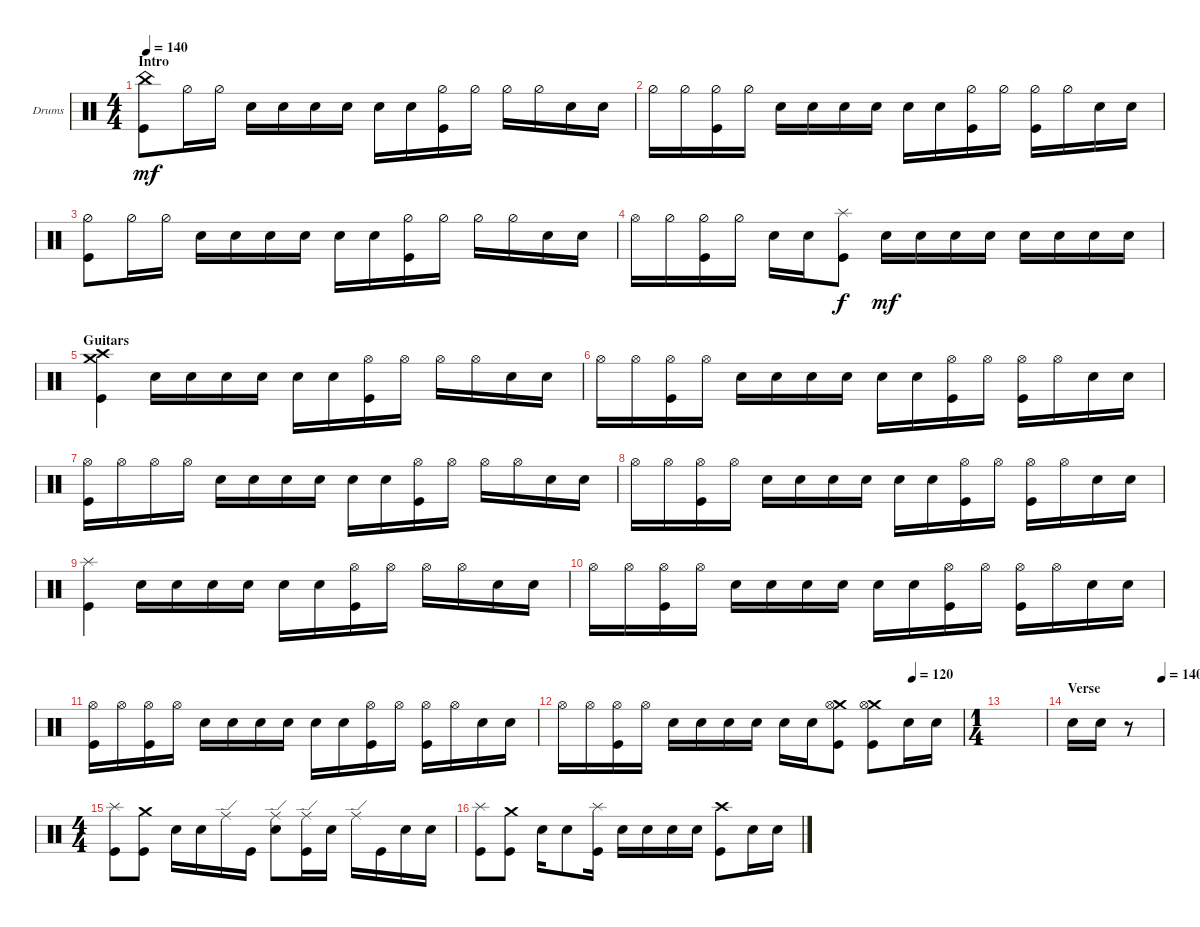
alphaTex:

\bracketExtendMode groupsimilarinstruments
\firstSystemTrackNameOrientation horizontal
\otherSystemsTrackNameOrientation horizontal
\track ("Drumkit" "Drums") {instrument percussion}
\staff {score}
\articulation defaults
\ts (4 4)
\section ("" "Intro")
\tempo 140
\clef neutral
\ks c
("Kick (hit)" "China (hit)").8{dy mf} "Hi-Hat (half)".16 "Hi-Hat (half)".16 "Snare (hit) 2".16 "Snare (hit) 2".16 "Snare (hit) 2".16 "Snare (hit) 2".16 "Snare (hit) 2".16 "Snare (hit) 2".16 ("Kick (hit)" "Hi-Hat (half)").16 "Hi-Hat (half)".16 "Hi-Hat (half)".16 "Hi-Hat (half)".16 "Snare (hit) 2".16 "Snare (hit) 2".16 |
"Hi-Hat (half)".16 "Hi-Hat (half)".16 ("Kick (hit)" "Hi-Hat (half)").16 "Hi-Hat (half)".16 "Snare (hit) 2".16 "Snare (hit) 2".16 "Snare (hit) 2".16 "Snare (hit) 2".16 "Snare (hit) 2".16 "Snare (hit) 2".16 ("Kick (hit)" "Hi-Hat (half)").16 "Hi-Hat (half)".16 ("Hi-Hat (half)" "Kick (hit)").16 "Hi-Hat (half)".16 "Snare (hit) 2".16 "Snare (hit) 2".16 |
("Kick (hit)" "Hi-Hat (half)").8 "Hi-Hat (half)".16 "Hi-Hat (half)".16 "Snare (hit) 2".16 "Snare (hit) 2".16 "Snare (hit) 2".16 "Snare (hit) 2".16 "Snare (hit) 2".16 "Snare (hit) 2".16 ("Kick (hit)" "Hi-Hat (half)").16 "Hi-Hat (half)".16 "Hi-Hat (half)".16 "Hi-Hat (half)".16 "Snare (hit) 2".16 "Snare (hit) 2".16 |
"Hi-Hat (open)".16 "Hi-Hat (half)".16 ("Hi-Hat (half)" "Kick (hit)").16 "Hi-Hat (half)".16 "Snare (hit) 2".16 "Snare (hit) 2".16 ("Kick (hit)" "Splash (hit)").8{dy f} "Snare (hit) 2".16{dy mf} "Snare (hit) 2".16 "Snare (hit) 2".16 "Snare (hit) 2".16 "Snare (hit) 2".16 "Snare (hit) 2".16 "Snare (hit) 2".16 "Snare (hit) 2".16 |
\section ("" "Guitars")
("Kick (hit)" "Crash high (hit)" "Crash medium (hit)").4 "Snare (hit) 2".16 "Snare (hit) 2".16 "Snare (hit) 2".16 "Snare (hit) 2".16 "Snare (hit) 2".16 "Snare (hit) 2".16 ("Kick (hit)" "Hi-Hat (open)").16 "Hi-Hat (open)".16 "Hi-Hat (open)".16 "Hi-Hat (open)".16 "Snare (hit) 2".16 "Snare (hit) 2".16 |
"Hi-Hat (open)".16 "Hi-Hat (open)".16 ("Kick (hit)" "Hi-Hat (open)").16 "Hi-Hat (open)".16 "Snare (hit) 2".16 "Snare (hit) 2".16 "Snare (hit) 2".16 "Snare (hit) 2".16 "Snare (hit) 2".16 "Snare (hit) 2".16 ("Kick (hit)" "Hi-Hat (open)").16 "Hi-Hat (open)".16 ("Hi-Hat (open)" "Kick (hit)").16 "Hi-Hat (open)".16 "Snare (hit) 2".16 "Snare (hit) 2".16 |
("Kick (hit)" "Hi-Hat (open)").16 "Hi-Hat (open)".16 "Hi-Hat (open)".16 "Hi-Hat (open)".16 "Snare (hit) 2".16 "Snare (hit) 2".16 "Snare (hit) 2".16 "Snare (hit) 2".16 "Snare (hit) 2".16 "Snare (hit) 2".16 ("Kick (hit)" "Hi-Hat (open)").16 "Hi-Hat (open)".16 "Hi-Hat (open)".16 "Hi-Hat (open)".16 "Snare (hit) 2".16 "Snare (hit) 2".16 |
"Hi-Hat (open)".16 "Hi-Hat (open)".16 ("Hi-Hat (open)" "Kick (hit)").16 "Hi-Hat (open)".16 "Snare (hit) 2".16 "Snare (hit) 2".16 "Snare (hit) 2".16 "Snare (hit) 2".16 "Snare (hit) 2".16 "Snare (hit) 2".16 ("Kick (hit)" "Hi-Hat (open)").16 "Hi-Hat (open)".16 ("Hi-Hat (open)" "Kick (hit)").16 "Hi-Hat (open)".16 "Snare (hit) 2".16 "Snare (hit) 2".16 |
("Kick (hit)" "Splash (hit)").4 "Snare (hit) 2".16 "Snare (hit) 2".16 "Snare (hit) 2".16 "Snare (hit) 2".16 "Snare (hit) 2".16 "Snare (hit) 2".16 ("Kick (hit)" "Hi-Hat (open)").16 "Hi-Hat (open)".16 "Hi-Hat (open)".16 "Hi-Hat (open)".16 "Snare (hit) 2".16 "Snare (hit) 2".16 |
"Hi-Hat (open)".16 "Hi-Hat (open)".16 ("Hi-Hat (open)" "Kick (hit)").16 "Hi-Hat (open)".16 "Snare (hit) 2".16 "Snare (hit) 2".16 "Snare (hit) 2".16 "Snare (hit) 2".16 "Snare (hit) 2".16 "Snare (hit) 2".16 ("Kick (hit)" "Hi-Hat (open)").16 "Hi-Hat (open)".16 ("Hi-Hat (open)" "Kick (hit)").16 "Hi-Hat (open)".16 "Snare (hit) 2".16 "Snare (hit) 2".16 |
("Kick (hit)" "Hi-Hat (open)").16 "Hi-Hat (open)".16 ("Hi-Hat (open)" "Kick (hit)").16 "Hi-Hat (open)".16 "Snare (hit) 2".16 "Snare (hit) 2".16 "Snare (hit) 2".16 "Snare (hit) 2".16 "Snare (hit) 2".16 "Snare (hit) 2".16 ("Kick (hit)" "Hi-Hat (open)").16 "Hi-Hat (open)".16 ("Hi-Hat (open)" "Kick (hit)").16 "Hi-Hat (open)".16 "Snare (hit) 2".16 "Snare (hit) 2".16 |
\tempo (120 0.875)
"Hi-Hat (open)".16 "Hi-Hat (open)".16 ("Hi-Hat (open)" "Kick (hit)").16 "Hi-Hat (open)".16 "Snare (hit) 2".16 "Snare (hit) 2".16 "Snare (hit) 2".16 "Snare (hit) 2".16 "Snare (hit) 2".16 "Snare (hit) 2".16 ("Kick (hit)" "Crash medium (hit)" "Hi-Hat (open)").8 ("Kick (hit)" "Crash medium (hit)" "Hi-Hat (open)").8 "Snare (hit) 2".16 "Snare (hit) 2".16 |
\ts (1 4)
|
\section ("" "Verse")
\tempo (140 1)
"Snare (hit) 2".16 "Snare (hit) 2".16 r.8 |
\ts (4 4)
("Kick (hit)" "Splash (hit)").8 ("Kick (hit)" "Crash medium (hit)").8 "Snare (hit) 2".16 "Snare (hit) 2".16 "Ride (edge)".16 "Kick (hit)".16 ("Snare (hit) 2" "Ride (edge)").8 ("Kick (hit)" "Ride (edge)").16 "Snare (hit) 2".16 "Ride (edge)".16 "Kick (hit)".16 "Snare (hit) 2".16 "Snare (hit) 2".16 |
("Kick (hit)" "Splash (hit)").8 ("Kick (hit)" "Crash medium (hit)").8 "Snare (hit) 2".16 "Snare (hit) 2".8 ("Kick (hit)" "Splash (hit)").16 "Snare (hit) 2".16 "Snare (hit) 2".16 "Snare (hit) 2".16 "Snare (hit) 2".16 ("Crash high (hit)" "Kick (hit)").8 "Snare (hit) 2".16 "Snare (hit) 2".16
